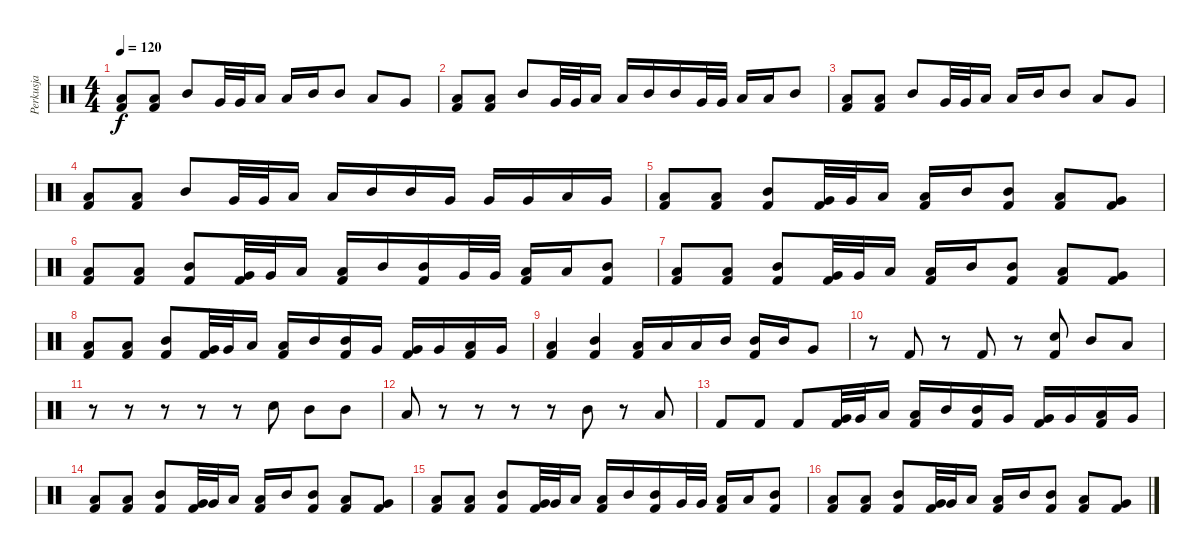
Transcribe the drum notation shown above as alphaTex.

\track ("Perkusja" "Perkusja") {instrument percussion}
\staff {score}
\articulation defaults
\ts (4 4)
\tempo 120
\clef neutral
\ks c
("Low Tom (hit)" "Kick (hit) 2").8{dy f} ("Low Tom (hit)" "Kick (hit) 2").8 "Mid Tom (hit)".8 "Very Low Tom (hit)".32 "Very Low Tom (hit)".32 "Low Tom (hit)".16 "Low Tom (hit)".16 "Mid Tom (hit)".16 "Mid Tom (hit)".8 "Low Tom (hit)".8 "Very Low Tom (hit)".8 |
("Low Tom (hit)" "Kick (hit) 2").8 ("Low Tom (hit)" "Kick (hit) 2").8 "Mid Tom (hit)".8 "Very Low Tom (hit)".32 "Very Low Tom (hit)".32 "Low Tom (hit)".16 "Low Tom (hit)".16 "Mid Tom (hit)".16 "Mid Tom (hit)".16 "Very Low Tom (hit)".32 "Very Low Tom (hit)".32 "Low Tom (hit)".16 "Low Tom (hit)".16 "Mid Tom (hit)".8 |
("Low Tom (hit)" "Kick (hit) 2").8 ("Low Tom (hit)" "Kick (hit) 2").8 "Mid Tom (hit)".8 "Very Low Tom (hit)".32 "Very Low Tom (hit)".32 "Low Tom (hit)".16 "Low Tom (hit)".16 "Mid Tom (hit)".16 "Mid Tom (hit)".8 "Low Tom (hit)".8 "Very Low Tom (hit)".8 |
("Low Tom (hit)" "Kick (hit) 2").8 ("Low Tom (hit)" "Kick (hit) 2").8 "Mid Tom (hit)".8 "Very Low Tom (hit)".32 "Very Low Tom (hit)".32 "Low Tom (hit)".16 "Low Tom (hit)".16 "Mid Tom (hit)".16 "Mid Tom (hit)".16 "Very Low Tom (hit)".16 "Very Low Tom (hit)".16 "Very Low Tom (hit)".16 "Low Tom (hit)".16 "Very Low Tom (hit)".16 |
("Low Tom (hit)" "Kick (hit) 2").8 ("Low Tom (hit)" "Kick (hit) 2").8 ("Mid Tom (hit)" "Kick (hit) 2").8 ("Very Low Tom (hit)" "Kick (hit) 2").32 "Very Low Tom (hit)".32 "Low Tom (hit)".16 ("Low Tom (hit)" "Kick (hit) 2").16 "Mid Tom (hit)".16 ("Mid Tom (hit)" "Kick (hit) 2").8 ("Low Tom (hit)" "Kick (hit) 2").8 ("Very Low Tom (hit)" "Kick (hit) 2").8 |
("Low Tom (hit)" "Kick (hit) 2").8 ("Low Tom (hit)" "Kick (hit) 2").8 ("Mid Tom (hit)" "Kick (hit) 2").8 ("Very Low Tom (hit)" "Kick (hit) 2").32 "Very Low Tom (hit)".32 "Low Tom (hit)".16 ("Low Tom (hit)" "Kick (hit) 2").16 "Mid Tom (hit)".16 ("Mid Tom (hit)" "Kick (hit) 2").16 "Very Low Tom (hit)".32 "Very Low Tom (hit)".32 ("Low Tom (hit)" "Kick (hit) 2").16 "Low Tom (hit)".16 ("Mid Tom (hit)" "Kick (hit) 2").8 |
("Low Tom (hit)" "Kick (hit) 2").8 ("Low Tom (hit)" "Kick (hit) 2").8 ("Mid Tom (hit)" "Kick (hit) 2").8 ("Very Low Tom (hit)" "Kick (hit) 2").32 "Very Low Tom (hit)".32 "Low Tom (hit)".16 ("Low Tom (hit)" "Kick (hit) 2").16 "Mid Tom (hit)".16 ("Mid Tom (hit)" "Kick (hit) 2").8 ("Low Tom (hit)" "Kick (hit) 2").8 ("Very Low Tom (hit)" "Kick (hit) 2").8 |
("Low Tom (hit)" "Kick (hit) 2").8 ("Low Tom (hit)" "Kick (hit) 2").8 ("Mid Tom (hit)" "Kick (hit) 2").8 ("Very Low Tom (hit)" "Kick (hit) 2").32 "Very Low Tom (hit)".32 "Low Tom (hit)".16 ("Low Tom (hit)" "Kick (hit) 2").16 "Mid Tom (hit)".16 ("Mid Tom (hit)" "Kick (hit) 2").16 "Very Low Tom (hit)".16 ("Very Low Tom (hit)" "Kick (hit) 2").16 "Very Low Tom (hit)".16 ("Low Tom (hit)" "Kick (hit) 2").16 "Very Low Tom (hit)".16 |
("Low Tom (hit)" "Kick (hit) 2").4 ("Mid Tom (hit)" "Kick (hit) 2").4 ("Low Tom (hit)" "Kick (hit) 2").16 "Low Tom (hit)".16 "Low Tom (hit)".16 "Mid Tom (hit)".16 ("Mid Tom (hit)" "Kick (hit) 2").16 "Mid Tom (hit)".16 "Very Low Tom (hit)".8 |
r.8 "Kick (hit) 2".8 r.8 "Kick (hit) 2".8 r.8 ("Electric Snare (hit)" "Kick (hit) 2").8 "Mid Tom (hit)".8 "Low Tom (hit)".8 |
r.8 r.8 r.8 r.8 r.8 "Electric Snare (hit)".8 "Mid Tom (hit)".8 "Mid Tom (hit)".8 |
"Low Tom (hit)".8 r.8 r.8 r.8 r.8 "Mid Tom (hit)".8 r.8 "Low Tom (hit)".8 |
"Kick (hit) 2".8 "Kick (hit) 2".8 "Kick (hit) 2".8 ("Very Low Tom (hit)" "Kick (hit) 2").32 "Very Low Tom (hit)".32 "Low Tom (hit)".16 ("Low Tom (hit)" "Kick (hit) 2").16 "Mid Tom (hit)".16 ("Mid Tom (hit)" "Kick (hit) 2").16 "Very Low Tom (hit)".16 ("Very Low Tom (hit)" "Kick (hit) 2").16 "Very Low Tom (hit)".16 ("Low Tom (hit)" "Kick (hit) 2").16 "Very Low Tom (hit)".16 |
("Low Tom (hit)" "Kick (hit) 2").8 ("Low Tom (hit)" "Kick (hit) 2").8 ("Mid Tom (hit)" "Kick (hit) 2").8 ("Very Low Tom (hit)" "Kick (hit) 2").32 "Very Low Tom (hit)".32 "Low Tom (hit)".16 ("Low Tom (hit)" "Kick (hit) 2").16 "Mid Tom (hit)".16 ("Mid Tom (hit)" "Kick (hit) 2").8 ("Low Tom (hit)" "Kick (hit) 2").8 ("Very Low Tom (hit)" "Kick (hit) 2").8 |
("Low Tom (hit)" "Kick (hit) 2").8 ("Low Tom (hit)" "Kick (hit) 2").8 ("Mid Tom (hit)" "Kick (hit) 2").8 ("Very Low Tom (hit)" "Kick (hit) 2").32 "Very Low Tom (hit)".32 "Low Tom (hit)".16 ("Low Tom (hit)" "Kick (hit) 2").16 "Mid Tom (hit)".16 ("Mid Tom (hit)" "Kick (hit) 2").16 "Very Low Tom (hit)".32 "Very Low Tom (hit)".32 ("Low Tom (hit)" "Kick (hit) 2").16 "Low Tom (hit)".16 ("Mid Tom (hit)" "Kick (hit) 2").8 |
("Low Tom (hit)" "Kick (hit) 2").8 ("Low Tom (hit)" "Kick (hit) 2").8 ("Mid Tom (hit)" "Kick (hit) 2").8 ("Very Low Tom (hit)" "Kick (hit) 2").32 "Very Low Tom (hit)".32 "Low Tom (hit)".16 ("Low Tom (hit)" "Kick (hit) 2").16 "Mid Tom (hit)".16 ("Mid Tom (hit)" "Kick (hit) 2").8 ("Low Tom (hit)" "Kick (hit) 2").8 ("Very Low Tom (hit)" "Kick (hit) 2").8
